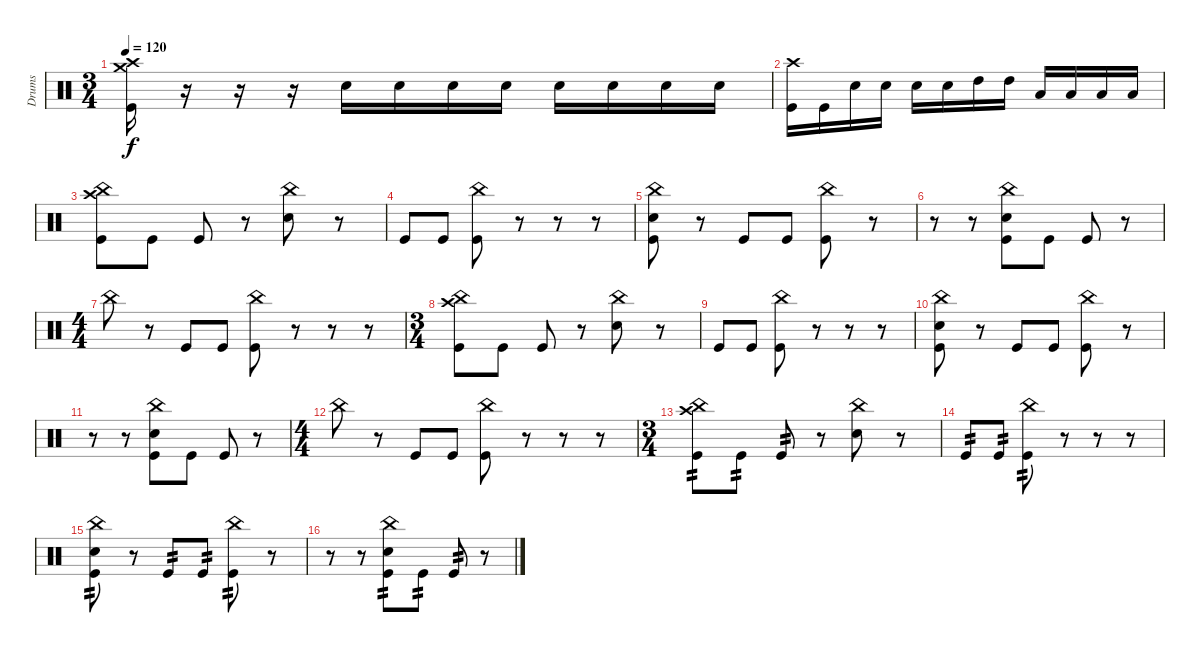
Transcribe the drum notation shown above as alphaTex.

\track ("Drums" "Drums") {instrument percussion}
\staff {score}
\articulation defaults
\ts (3 4)
\tempo 120
\clef neutral
\ks c
("Crash high (hit)" "Crash medium (hit)" "Kick (hit)").16{dy f} r.16 r.16 r.16 "Snare (hit) 2".16 "Snare (hit) 2".16 "Snare (hit) 2".16 "Snare (hit) 2".16 "Snare (hit) 2".16 "Snare (hit) 2".16 "Snare (hit) 2".16 "Snare (hit) 2".16 |
("Crash high (hit)" "Kick (hit)").16 "Kick (hit)".16 "Snare (hit) 2".16 "Snare (hit) 2".16 "Snare (hit) 2".16 "Snare (hit) 2".16 "High Tom (hit)".16 "High Tom (hit)".16 "Low Tom (hit)".16 "Low Tom (hit)".16 "Low Tom (hit)".16 "Low Tom (hit)".16 |
("China (hit)" "Crash high (hit)" "Kick (hit)").8 "Kick (hit)".8 "Kick (hit)".8 r.8 ("China (hit)" "Snare (hit) 2").8 r.8 |
"Kick (hit)".8 "Kick (hit)".8 ("China (hit)" "Kick (hit)").8 r.8 r.8 r.8 |
("China (hit)" "Kick (hit)" "Snare (hit) 2").8 r.8 "Kick (hit)".8 "Kick (hit)".8 ("China (hit)" "Kick (hit)").8 r.8 |
r.8 r.8 ("Snare (hit) 2" "China (hit)" "Kick (hit)").8 "Kick (hit)".8 "Kick (hit)".8 r.8 |
\ts (4 4)
"China (hit)".8 r.8 "Kick (hit)".8 "Kick (hit)".8 ("China (hit)" "Kick (hit)").8 r.8 r.8 r.8 |
\ts (3 4)
("China (hit)" "Crash high (hit)" "Kick (hit)").8 "Kick (hit)".8 "Kick (hit)".8 r.8 ("China (hit)" "Snare (hit) 2").8 r.8 |
"Kick (hit)".8 "Kick (hit)".8 ("China (hit)" "Kick (hit)").8 r.8 r.8 r.8 |
("China (hit)" "Kick (hit)" "Snare (hit) 2").8 r.8 "Kick (hit)".8 "Kick (hit)".8 ("China (hit)" "Kick (hit)").8 r.8 |
r.8 r.8 ("Snare (hit) 2" "China (hit)" "Kick (hit)").8 "Kick (hit)".8 "Kick (hit)".8 r.8 |
\ts (4 4)
"China (hit)".8 r.8 "Kick (hit)".8 "Kick (hit)".8 ("China (hit)" "Kick (hit)").8 r.8 r.8 r.8 |
\ts (3 4)
("China (hit)" "Crash high (hit)" "Kick (hit)").8{tp 2} "Kick (hit)".8{tp 2} "Kick (hit)".8{tp 2} r.8 ("China (hit)" "Snare (hit) 2").8 r.8 |
"Kick (hit)".8{tp 2} "Kick (hit)".8{tp 2} ("China (hit)" "Kick (hit)").8{tp 2} r.8 r.8 r.8 |
("China (hit)" "Kick (hit)" "Snare (hit) 2").8{tp 2} r.8 "Kick (hit)".8{tp 2} "Kick (hit)".8{tp 2} ("China (hit)" "Kick (hit)").8{tp 2} r.8 |
r.8 r.8 ("Snare (hit) 2" "China (hit)" "Kick (hit)").8{tp 2} "Kick (hit)".8{tp 2} "Kick (hit)".8{tp 2} r.8
